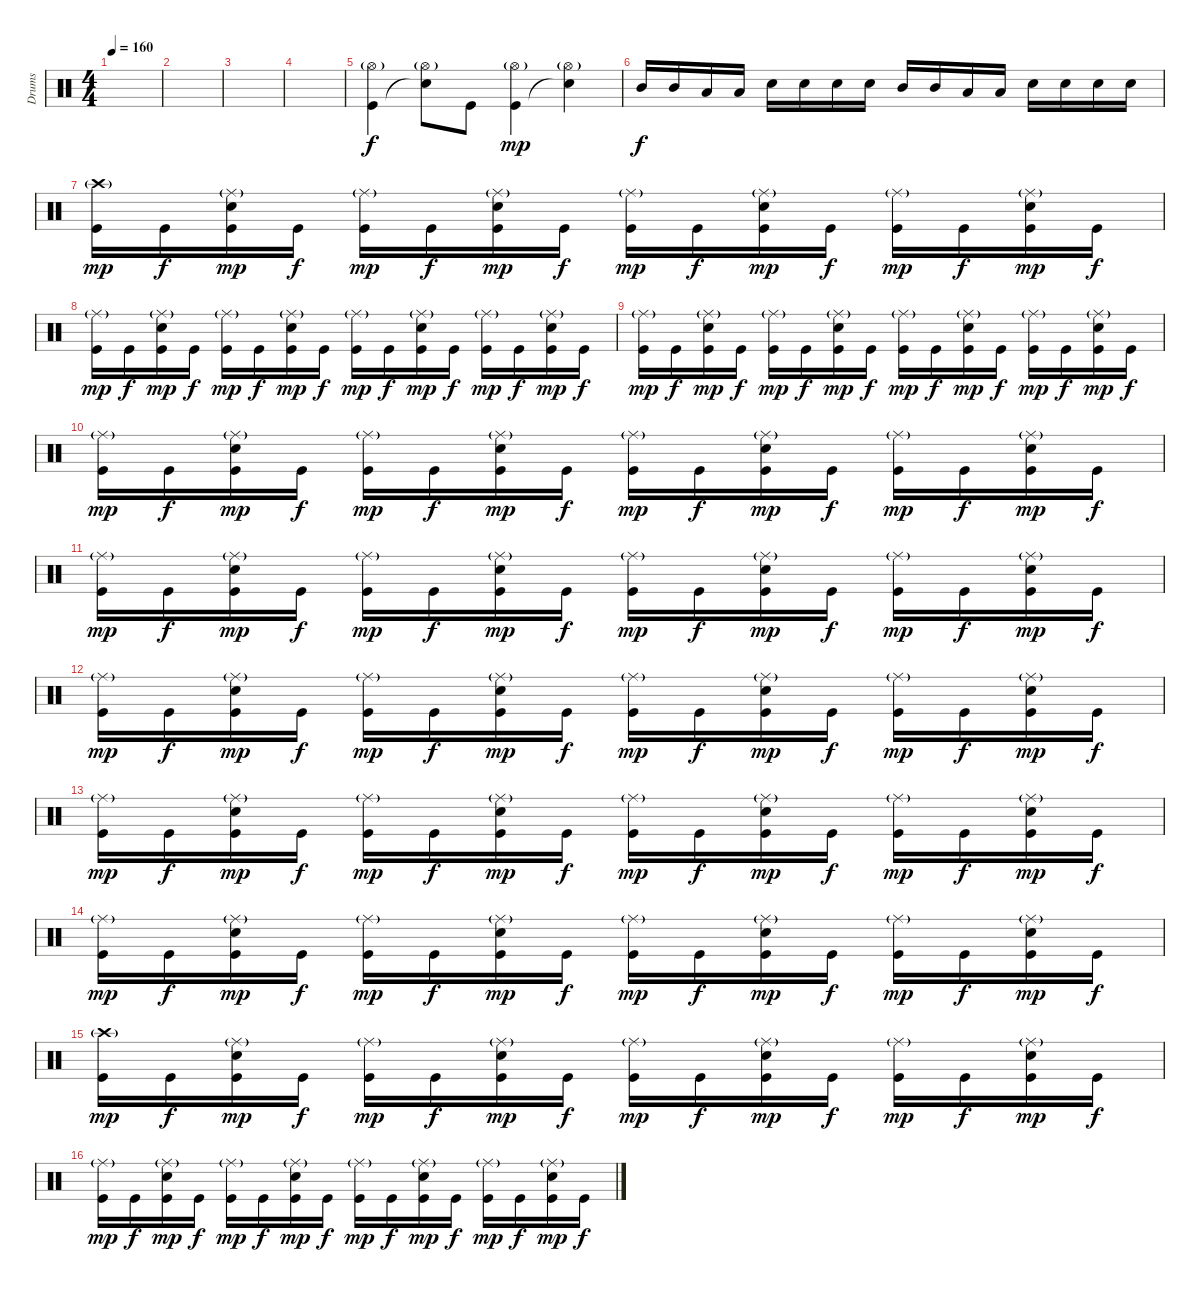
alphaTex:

\track ("Drums" "Drums") {instrument percussion}
\staff {score}
\articulation defaults
\ts (4 4)
\tempo 160
\clef neutral
\ks c
|
|
|
|
("Hi-Hat (open)"{g} "Kick (hit)").4 ("Hi-Hat (open)"{g} "Snare (hit)"{t}).8 "Kick (hit)".8{dy f} ("Hi-Hat (open)"{g} "Kick (hit)").4{dy mp} ("Hi-Hat (open)"{g} "Snare (hit)"{t}).4 |
"Mid Tom (hit)".16{dy f} "Mid Tom (hit)".16 "Low Tom (hit)".16 "Low Tom (hit)".16 "Snare (hit) 2".16 "Snare (hit) 2".16 "Snare (hit) 2".16 "Snare (hit) 2".16 "Mid Tom (hit)".16 "Mid Tom (hit)".16 "Low Tom (hit)".16 "Low Tom (hit)".16 "Snare (hit) 2".16 "Snare (hit) 2".16 "Snare (hit) 2".16 "Snare (hit) 2".16 |
("Crash high (hit)"{g} "Kick (hit)").16{dy mp} "Kick (hit)".16{dy f} ("Ride (middle)"{g} "Snare (hit) 2" "Kick (hit)").16{dy mp} "Kick (hit)".16{dy f} ("Ride (middle)"{g} "Kick (hit)").16{dy mp} "Kick (hit)".16{dy f} ("Ride (middle)"{g} "Snare (hit) 2" "Kick (hit)").16{dy mp} "Kick (hit)".16{dy f} ("Ride (middle)"{g} "Kick (hit)").16{dy mp} "Kick (hit)".16{dy f} ("Ride (middle)"{g} "Snare (hit) 2" "Kick (hit)").16{dy mp} "Kick (hit)".16{dy f} ("Ride (middle)"{g} "Kick (hit)").16{dy mp} "Kick (hit)".16{dy f} ("Ride (middle)"{g} "Snare (hit) 2" "Kick (hit)").16{dy mp} "Kick (hit)".16{dy f} |
("Ride (middle)"{g} "Kick (hit)").16{dy mp} "Kick (hit)".16{dy f} ("Ride (middle)"{g} "Snare (hit) 2" "Kick (hit)").16{dy mp} "Kick (hit)".16{dy f} ("Ride (middle)"{g} "Kick (hit)").16{dy mp} "Kick (hit)".16{dy f} ("Ride (middle)"{g} "Snare (hit) 2" "Kick (hit)").16{dy mp} "Kick (hit)".16{dy f} ("Ride (middle)"{g} "Kick (hit)").16{dy mp} "Kick (hit)".16{dy f} ("Ride (middle)"{g} "Snare (hit) 2" "Kick (hit)").16{dy mp} "Kick (hit)".16{dy f} ("Ride (middle)"{g} "Kick (hit)").16{dy mp} "Kick (hit)".16{dy f} ("Ride (middle)"{g} "Snare (hit) 2" "Kick (hit)").16{dy mp} "Kick (hit)".16{dy f} |
("Ride (middle)"{g} "Kick (hit)").16{dy mp} "Kick (hit)".16{dy f} ("Ride (middle)"{g} "Snare (hit) 2" "Kick (hit)").16{dy mp} "Kick (hit)".16{dy f} ("Ride (middle)"{g} "Kick (hit)").16{dy mp} "Kick (hit)".16{dy f} ("Ride (middle)"{g} "Snare (hit) 2" "Kick (hit)").16{dy mp} "Kick (hit)".16{dy f} ("Ride (middle)"{g} "Kick (hit)").16{dy mp} "Kick (hit)".16{dy f} ("Ride (middle)"{g} "Snare (hit) 2" "Kick (hit)").16{dy mp} "Kick (hit)".16{dy f} ("Ride (middle)"{g} "Kick (hit)").16{dy mp} "Kick (hit)".16{dy f} ("Ride (middle)"{g} "Snare (hit) 2" "Kick (hit)").16{dy mp} "Kick (hit)".16{dy f} |
("Ride (middle)"{g} "Kick (hit)").16{dy mp} "Kick (hit)".16{dy f} ("Ride (middle)"{g} "Snare (hit) 2" "Kick (hit)").16{dy mp} "Kick (hit)".16{dy f} ("Ride (middle)"{g} "Kick (hit)").16{dy mp} "Kick (hit)".16{dy f} ("Ride (middle)"{g} "Snare (hit) 2" "Kick (hit)").16{dy mp} "Kick (hit)".16{dy f} ("Ride (middle)"{g} "Kick (hit)").16{dy mp} "Kick (hit)".16{dy f} ("Ride (middle)"{g} "Snare (hit) 2" "Kick (hit)").16{dy mp} "Kick (hit)".16{dy f} ("Ride (middle)"{g} "Kick (hit)").16{dy mp} "Kick (hit)".16{dy f} ("Ride (middle)"{g} "Snare (hit) 2" "Kick (hit)").16{dy mp} "Kick (hit)".16{dy f} |
("Ride (middle)"{g} "Kick (hit)").16{dy mp} "Kick (hit)".16{dy f} ("Ride (middle)"{g} "Snare (hit) 2" "Kick (hit)").16{dy mp} "Kick (hit)".16{dy f} ("Ride (middle)"{g} "Kick (hit)").16{dy mp} "Kick (hit)".16{dy f} ("Ride (middle)"{g} "Snare (hit) 2" "Kick (hit)").16{dy mp} "Kick (hit)".16{dy f} ("Ride (middle)"{g} "Kick (hit)").16{dy mp} "Kick (hit)".16{dy f} ("Ride (middle)"{g} "Snare (hit) 2" "Kick (hit)").16{dy mp} "Kick (hit)".16{dy f} ("Ride (middle)"{g} "Kick (hit)").16{dy mp} "Kick (hit)".16{dy f} ("Ride (middle)"{g} "Snare (hit) 2" "Kick (hit)").16{dy mp} "Kick (hit)".16{dy f} |
("Ride (middle)"{g} "Kick (hit)").16{dy mp} "Kick (hit)".16{dy f} ("Ride (middle)"{g} "Snare (hit) 2" "Kick (hit)").16{dy mp} "Kick (hit)".16{dy f} ("Ride (middle)"{g} "Kick (hit)").16{dy mp} "Kick (hit)".16{dy f} ("Ride (middle)"{g} "Snare (hit) 2" "Kick (hit)").16{dy mp} "Kick (hit)".16{dy f} ("Ride (middle)"{g} "Kick (hit)").16{dy mp} "Kick (hit)".16{dy f} ("Ride (middle)"{g} "Snare (hit) 2" "Kick (hit)").16{dy mp} "Kick (hit)".16{dy f} ("Ride (middle)"{g} "Kick (hit)").16{dy mp} "Kick (hit)".16{dy f} ("Ride (middle)"{g} "Snare (hit) 2" "Kick (hit)").16{dy mp} "Kick (hit)".16{dy f} |
("Ride (middle)"{g} "Kick (hit)").16{dy mp} "Kick (hit)".16{dy f} ("Ride (middle)"{g} "Snare (hit) 2" "Kick (hit)").16{dy mp} "Kick (hit)".16{dy f} ("Ride (middle)"{g} "Kick (hit)").16{dy mp} "Kick (hit)".16{dy f} ("Ride (middle)"{g} "Snare (hit) 2" "Kick (hit)").16{dy mp} "Kick (hit)".16{dy f} ("Ride (middle)"{g} "Kick (hit)").16{dy mp} "Kick (hit)".16{dy f} ("Ride (middle)"{g} "Snare (hit) 2" "Kick (hit)").16{dy mp} "Kick (hit)".16{dy f} ("Ride (middle)"{g} "Kick (hit)").16{dy mp} "Kick (hit)".16{dy f} ("Ride (middle)"{g} "Snare (hit) 2" "Kick (hit)").16{dy mp} "Kick (hit)".16{dy f} |
("Ride (middle)"{g} "Kick (hit)").16{dy mp} "Kick (hit)".16{dy f} ("Ride (middle)"{g} "Snare (hit) 2" "Kick (hit)").16{dy mp} "Kick (hit)".16{dy f} ("Ride (middle)"{g} "Kick (hit)").16{dy mp} "Kick (hit)".16{dy f} ("Ride (middle)"{g} "Snare (hit) 2" "Kick (hit)").16{dy mp} "Kick (hit)".16{dy f} ("Ride (middle)"{g} "Kick (hit)").16{dy mp} "Kick (hit)".16{dy f} ("Ride (middle)"{g} "Snare (hit) 2" "Kick (hit)").16{dy mp} "Kick (hit)".16{dy f} ("Ride (middle)"{g} "Kick (hit)").16{dy mp} "Kick (hit)".16{dy f} ("Ride (middle)"{g} "Snare (hit) 2" "Kick (hit)").16{dy mp} "Kick (hit)".16{dy f} |
("Crash high (hit)"{g} "Kick (hit)").16{dy mp} "Kick (hit)".16{dy f} ("Ride (middle)"{g} "Snare (hit) 2" "Kick (hit)").16{dy mp} "Kick (hit)".16{dy f} ("Ride (middle)"{g} "Kick (hit)").16{dy mp} "Kick (hit)".16{dy f} ("Ride (middle)"{g} "Snare (hit) 2" "Kick (hit)").16{dy mp} "Kick (hit)".16{dy f} ("Ride (middle)"{g} "Kick (hit)").16{dy mp} "Kick (hit)".16{dy f} ("Ride (middle)"{g} "Snare (hit) 2" "Kick (hit)").16{dy mp} "Kick (hit)".16{dy f} ("Ride (middle)"{g} "Kick (hit)").16{dy mp} "Kick (hit)".16{dy f} ("Ride (middle)"{g} "Snare (hit) 2" "Kick (hit)").16{dy mp} "Kick (hit)".16{dy f} |
("Ride (middle)"{g} "Kick (hit)").16{dy mp} "Kick (hit)".16{dy f} ("Ride (middle)"{g} "Snare (hit) 2" "Kick (hit)").16{dy mp} "Kick (hit)".16{dy f} ("Ride (middle)"{g} "Kick (hit)").16{dy mp} "Kick (hit)".16{dy f} ("Ride (middle)"{g} "Snare (hit) 2" "Kick (hit)").16{dy mp} "Kick (hit)".16{dy f} ("Ride (middle)"{g} "Kick (hit)").16{dy mp} "Kick (hit)".16{dy f} ("Ride (middle)"{g} "Snare (hit) 2" "Kick (hit)").16{dy mp} "Kick (hit)".16{dy f} ("Ride (middle)"{g} "Kick (hit)").16{dy mp} "Kick (hit)".16{dy f} ("Ride (middle)"{g} "Snare (hit) 2" "Kick (hit)").16{dy mp} "Kick (hit)".16{dy f}
